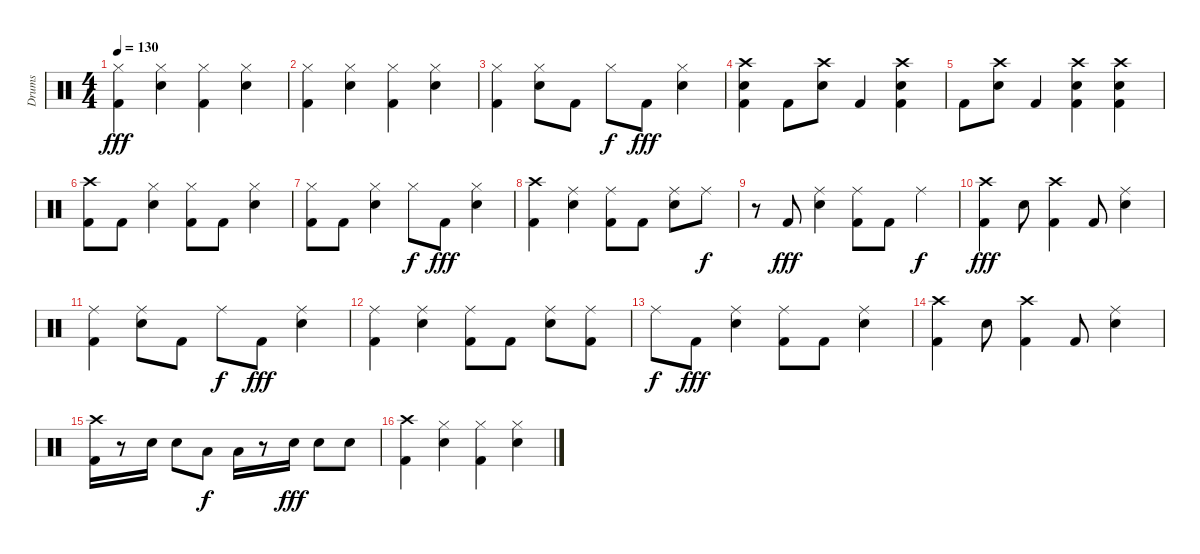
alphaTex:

\track ("Drums" "Drums") {instrument percussion}
\staff {score}
\articulation defaults
\ts (4 4)
\tempo 130
\clef neutral
\ks c
("Kick (hit) 2" "Hi-Hat (closed)").4{dy fff} ("Hi-Hat (closed)" "Snare (hit) 2").4 ("Kick (hit) 2" "Hi-Hat (closed)").4 ("Hi-Hat (closed)" "Snare (hit) 2").4 |
("Kick (hit) 2" "Hi-Hat (closed)").4 ("Hi-Hat (closed)" "Snare (hit) 2").4 ("Kick (hit) 2" "Hi-Hat (closed)").4 ("Hi-Hat (closed)" "Snare (hit) 2").4 |
("Kick (hit) 2" "Hi-Hat (closed)").4 ("Hi-Hat (closed)" "Snare (hit) 2").8 "Kick (hit) 2".8 "Hi-Hat (closed)".8{dy f} "Kick (hit) 2".8{dy fff} ("Hi-Hat (closed)" "Snare (hit) 2").4 |
("Crash high (hit)" "Kick (hit) 2" "Snare (hit) 2").4 "Kick (hit) 2".8 ("Crash high (hit)" "Snare (hit) 2").8 "Kick (hit) 2".4 ("Crash high (hit)" "Kick (hit) 2" "Snare (hit) 2").4 |
"Kick (hit) 2".8 ("Crash high (hit)" "Snare (hit) 2").8 "Kick (hit) 2".4 ("Crash high (hit)" "Kick (hit) 2" "Snare (hit) 2").4 ("Crash high (hit)" "Kick (hit) 2" "Snare (hit) 2").4 |
("Crash high (hit)" "Kick (hit) 2").8 "Kick (hit) 2".8 ("Hi-Hat (closed)" "Snare (hit) 2").4 ("Kick (hit) 2" "Hi-Hat (closed)").8 "Kick (hit) 2".8 ("Hi-Hat (closed)" "Snare (hit) 2").4 |
("Kick (hit) 2" "Hi-Hat (closed)").8 "Kick (hit) 2".8 ("Hi-Hat (closed)" "Snare (hit) 2").4 "Hi-Hat (closed)".8{dy f} "Kick (hit) 2".8{dy fff} ("Hi-Hat (closed)" "Snare (hit) 2").4 |
("Crash high (hit)" "Kick (hit) 2").4 ("Ride (middle)" "Snare (hit) 2").4 ("Ride (middle)" "Kick (hit) 2").8 "Kick (hit) 2".8 ("Ride (middle)" "Snare (hit) 2").8 "Ride (middle)".8{dy f} |
r.8 "Kick (hit) 2".8{dy fff} ("Ride (middle)" "Snare (hit) 2").4 ("Kick (hit) 2" "Ride (middle)").8 "Kick (hit) 2".8 "Ride (middle)".4{dy f} |
("Crash high (hit)" "Kick (hit) 2").4{dy fff} "Snare (hit) 2".8 ("Crash high (hit)" "Kick (hit) 2").4 "Kick (hit) 2".8 ("Ride (middle)" "Snare (hit) 2").4 |
("Kick (hit) 2" "Ride (middle)").4 ("Ride (middle)" "Snare (hit) 2").8 "Kick (hit) 2".8 "Ride (middle)".8{dy f} "Kick (hit) 2".8{dy fff} ("Ride (middle)" "Snare (hit) 2").4 |
("Kick (hit) 2" "Ride (middle)").4 ("Ride (middle)" "Snare (hit) 2").4 ("Kick (hit) 2" "Ride (middle)").8 "Kick (hit) 2".8 ("Ride (middle)" "Snare (hit) 2").8 ("Kick (hit) 2" "Ride (middle)").8 |
"Ride (middle)".8{dy f} "Kick (hit) 2".8{dy fff} ("Ride (middle)" "Snare (hit) 2").4 ("Kick (hit) 2" "Ride (middle)").8 "Kick (hit) 2".8 ("Ride (middle)" "Snare (hit) 2").4 |
("Crash high (hit)" "Kick (hit) 2").4 "Snare (hit) 2".8 ("Crash high (hit)" "Kick (hit) 2").4 "Kick (hit) 2".8 ("Ride (middle)" "Snare (hit) 2").4 |
("Crash high (hit)" "Kick (hit) 2").16 r.8 "Snare (hit) 2".16 "Snare (hit) 2".8 "Low Tom (hit)".8{dy f} "Low Tom (hit)".16 r.8 "Snare (hit) 2".16{dy fff} "Snare (hit) 2".8 "Snare (hit) 2".8 |
("Crash high (hit)" "Kick (hit) 2").4 ("Hi-Hat (closed)" "Snare (hit) 2").4 ("Kick (hit) 2" "Hi-Hat (closed)").4 ("Hi-Hat (closed)" "Snare (hit) 2").4
